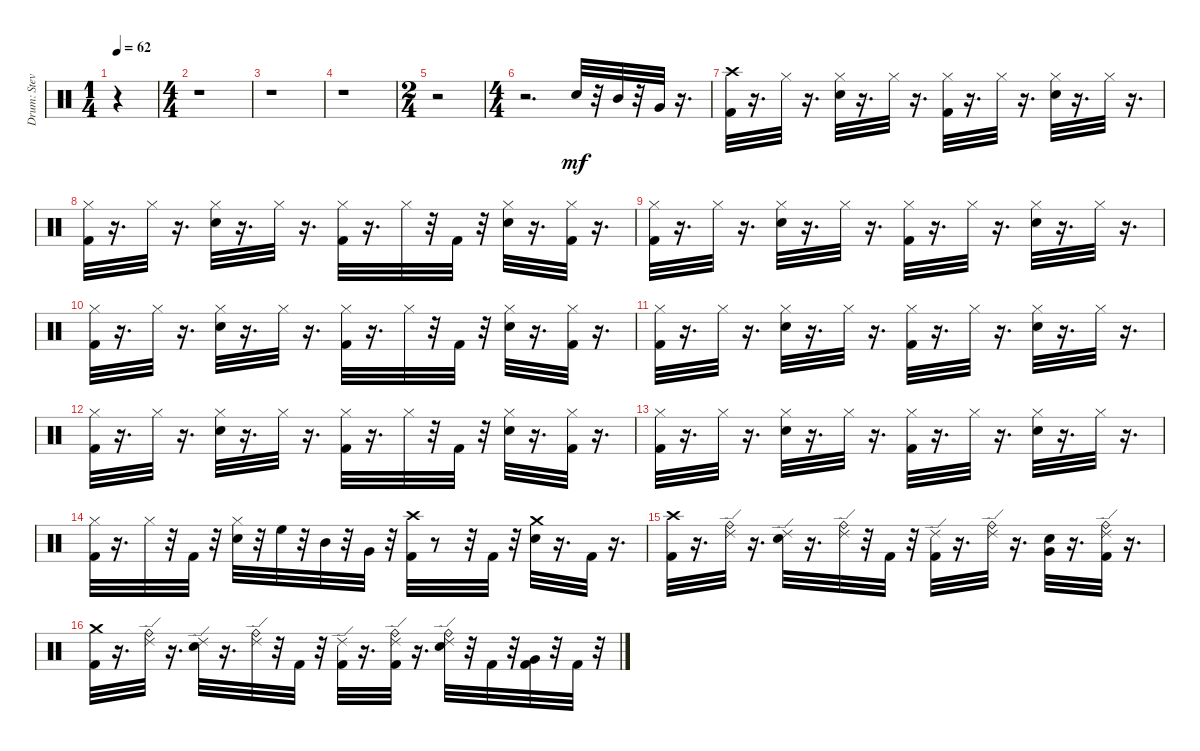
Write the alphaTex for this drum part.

\track ("Drum: Steven Adler" "Drum: Stev") {instrument percussion}
\staff {score}
\articulation defaults
\ts (1 4)
\tempo 62
\clef neutral
\ks c
r.4{dy mf} |
\ts (4 4)
r.1 |
r.1 |
r.1 |
\ts (2 4)
r.2 |
\ts (4 4)
r.2{d} "Snare (hit) 2".32 r.32 "Mid Tom (hit)".32 r.32 "Very Low Tom (hit)".32 r.16{d} |
("Crash high (hit)" "Kick (hit) 2").32 r.16{d} "Hi-Hat (closed)".32 r.16{d} ("Snare (hit) 2" "Hi-Hat (closed)").32 r.16{d} "Hi-Hat (closed)".32 r.16{d} ("Hi-Hat (closed)" "Kick (hit) 2").32 r.16{d} "Hi-Hat (closed)".32 r.16{d} ("Hi-Hat (closed)" "Snare (hit) 2").32 r.16{d} "Hi-Hat (closed)".32 r.16{d} |
("Kick (hit) 2" "Hi-Hat (closed)").32 r.16{d} "Hi-Hat (closed)".32 r.16{d} ("Hi-Hat (closed)" "Snare (hit) 2").32 r.16{d} "Hi-Hat (closed)".32 r.16{d} ("Kick (hit) 2" "Hi-Hat (closed)").32 r.16{d} "Hi-Hat (closed)".32 r.32 "Kick (hit) 2".32 r.32 ("Hi-Hat (closed)" "Snare (hit) 2").32 r.16{d} ("Kick (hit) 2" "Hi-Hat (closed)").32 r.16{d} |
("Kick (hit) 2" "Hi-Hat (closed)").32 r.16{d} "Hi-Hat (closed)".32 r.16{d} ("Snare (hit) 2" "Hi-Hat (closed)").32 r.16{d} "Hi-Hat (closed)".32 r.16{d} ("Kick (hit) 2" "Hi-Hat (closed)").32 r.16{d} "Hi-Hat (closed)".32 r.16{d} ("Snare (hit) 2" "Hi-Hat (closed)").32 r.16{d} "Hi-Hat (closed)".32 r.16{d} |
("Kick (hit) 2" "Hi-Hat (closed)").32 r.16{d} "Hi-Hat (closed)".32 r.16{d} ("Snare (hit) 2" "Hi-Hat (closed)").32 r.16{d} "Hi-Hat (closed)".32 r.16{d} ("Kick (hit) 2" "Hi-Hat (closed)").32 r.16{d} "Hi-Hat (closed)".32 r.32 "Kick (hit) 2".32 r.32 ("Hi-Hat (closed)" "Snare (hit) 2").32 r.16{d} ("Kick (hit) 2" "Hi-Hat (closed)").32 r.16{d} |
("Kick (hit) 2" "Hi-Hat (closed)").32 r.16{d} "Hi-Hat (closed)".32 r.16{d} ("Hi-Hat (closed)" "Snare (hit) 2").32 r.16{d} "Hi-Hat (closed)".32 r.16{d} ("Hi-Hat (closed)" "Kick (hit) 2").32 r.16{d} "Hi-Hat (closed)".32 r.16{d} ("Snare (hit) 2" "Hi-Hat (closed)").32 r.16{d} "Hi-Hat (closed)".32 r.16{d} |
("Hi-Hat (closed)" "Kick (hit) 2").32 r.16{d} "Hi-Hat (closed)".32 r.16{d} ("Hi-Hat (closed)" "Snare (hit) 2").32 r.16{d} "Hi-Hat (closed)".32 r.16{d} ("Kick (hit) 2" "Hi-Hat (closed)").32 r.16{d} "Hi-Hat (closed)".32 r.32 "Kick (hit) 2".32 r.32 ("Snare (hit) 2" "Hi-Hat (closed)").32 r.16{d} ("Kick (hit) 2" "Hi-Hat (closed)").32 r.16{d} |
("Hi-Hat (closed)" "Kick (hit) 2").32 r.16{d} "Hi-Hat (closed)".32 r.16{d} ("Hi-Hat (closed)" "Snare (hit) 2").32 r.16{d} "Hi-Hat (closed)".32 r.16{d} ("Kick (hit) 2" "Hi-Hat (closed)").32 r.16{d} "Hi-Hat (closed)".32 r.16{d} ("Snare (hit) 2" "Hi-Hat (closed)").32 r.16{d} "Hi-Hat (closed)".32 r.16{d} |
("Kick (hit) 2" "Hi-Hat (closed)").32 r.16{d} "Hi-Hat (closed)".32 r.32 "Kick (hit) 2".32 r.32 ("Snare (hit) 2" "Hi-Hat (closed)").32 r.32 "High Floor Tom (hit)".32 r.32 "Mid Tom (hit)".32 r.32 "Very Low Tom (hit)".32 r.32 ("Kick (hit) 2" "Crash high (hit)").32 r.8 r.32 "Kick (hit) 2".32 r.32 ("Snare (hit) 2" "Crash medium (hit)").32 r.16{d} "Kick (hit) 2".32 r.16{d} |
("Kick (hit) 2" "Crash high (hit)").32 r.16{d} ("Ride (edge) 2" "Ride (bell)").32 r.16{d} ("Ride (edge) 2" "Snare (hit) 2").32 r.16{d} ("Ride (bell)" "Ride (edge) 2").32 r.32 "Kick (hit) 2".32 r.32 ("Kick (hit) 2" "Ride (edge) 2").32 r.16{d} ("Ride (edge) 2" "Ride (bell)").32 r.16{d} ("Very Low Tom (hit)" "Snare (hit) 2").32 r.16{d} ("Ride (edge) 2" "Ride (bell)" "Kick (hit) 2").32 r.16{d} |
("Crash medium (hit)" "Kick (hit) 2").32 r.16{d} ("Ride (bell)" "Ride (edge) 2").32 r.16{d} ("Snare (hit) 2" "Ride (edge) 2").32 r.16{d} ("Ride (edge) 2" "Ride (bell)").32 r.32 "Kick (hit) 2".32 r.32 ("Ride (edge) 2" "Kick (hit) 2").32 r.16{d} ("Ride (bell)" "Ride (edge) 2" "Kick (hit) 2").32 r.16{d} ("Ride (bell)" "Snare (hit) 2" "Ride (edge) 2").32 r.32 "Kick (hit) 2".32 r.32 ("Very Low Tom (hit)" "Kick (hit) 2").32 r.32 "Kick (hit) 2".32 r.32
